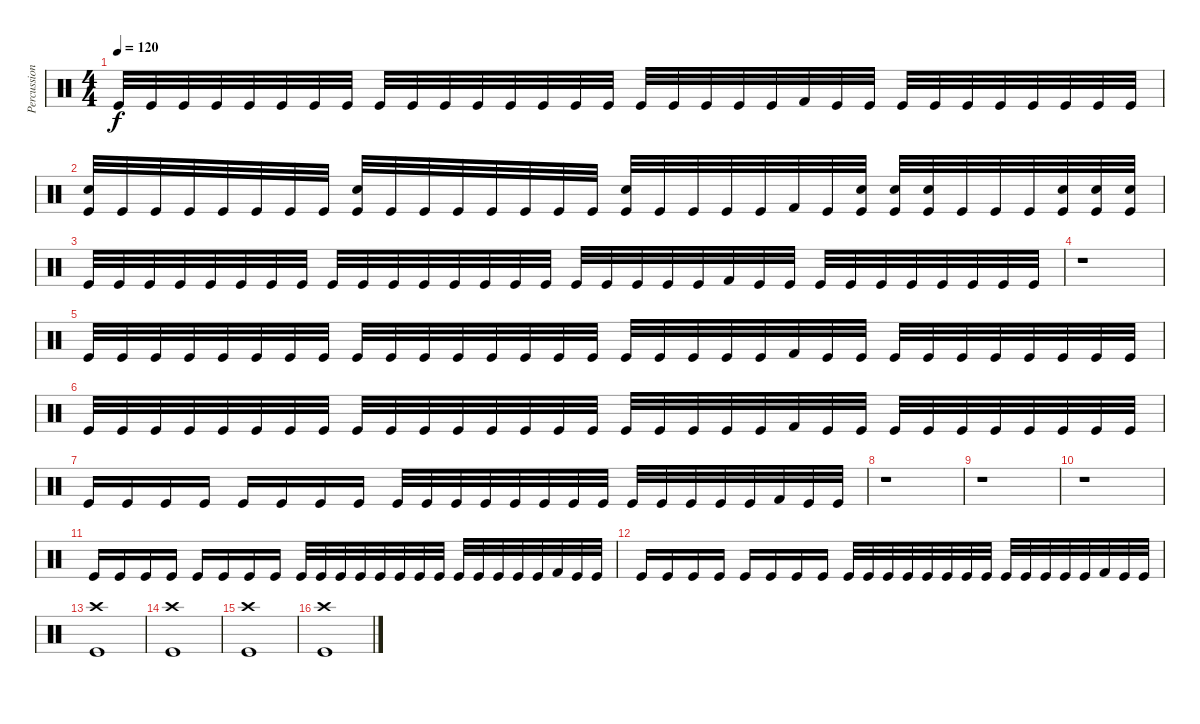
\track ("Percussion" "Percussion") {instrument percussion}
\staff {score}
\articulation defaults
\ts (4 4)
\tempo 120
\clef neutral
\ks c "Kick (hit)".32{dy f} "Kick (hit)".32 "Kick (hit)".32 "Kick (hit)".32 "Kick (hit)".32 "Kick (hit)".32 "Kick (hit)".32 "Kick (hit)".32 "Kick (hit)".32 "Kick (hit)".32 "Kick (hit)".32 "Kick (hit)".32 "Kick (hit)".32 "Kick (hit)".32 "Kick (hit)".32 "Kick (hit)".32 "Kick (hit)".32 "Kick (hit)".32 "Kick (hit)".32 "Kick (hit)".32 "Kick (hit)".32 "Kick (hit) 2".32 "Kick (hit)".32 "Kick (hit)".32 "Kick (hit)".32 "Kick (hit)".32 "Kick (hit)".32 "Kick (hit)".32 "Kick (hit)".32 "Kick (hit)".32 "Kick (hit)".32 "Kick (hit)".32
|
("Kick (hit)" "Snare (hit) 2").32 "Kick (hit)".32 "Kick (hit)".32 "Kick (hit)".32 "Kick (hit)".32 "Kick (hit)".32 "Kick (hit)".32 "Kick (hit)".32 ("Kick (hit)" "Snare (hit) 2").32 "Kick (hit)".32 "Kick (hit)".32 "Kick (hit)".32 "Kick (hit)".32 "Kick (hit)".32 "Kick (hit)".32 "Kick (hit)".32 ("Kick (hit)" "Snare (hit) 2").32 "Kick (hit)".32 "Kick (hit)".32 "Kick (hit)".32 "Kick (hit)".32 "Kick (hit) 2".32 "Kick (hit)".32 ("Kick (hit)" "Snare (hit) 2").32 ("Kick (hit)" "Snare (hit) 2").32 ("Kick (hit)" "Snare (hit) 2").32 "Kick (hit)".32 "Kick (hit)".32 "Kick (hit)".32 ("Kick (hit)" "Snare (hit) 2").32 ("Kick (hit)" "Snare (hit) 2").32 ("Kick (hit)" "Snare (hit) 2").32 |
"Kick (hit)".32 "Kick (hit)".32 "Kick (hit)".32 "Kick (hit)".32 "Kick (hit)".32 "Kick (hit)".32 "Kick (hit)".32 "Kick (hit)".32 "Kick (hit)".32 "Kick (hit)".32 "Kick (hit)".32 "Kick (hit)".32 "Kick (hit)".32 "Kick (hit)".32 "Kick (hit)".32 "Kick (hit)".32 "Kick (hit)".32 "Kick (hit)".32 "Kick (hit)".32 "Kick (hit)".32 "Kick (hit)".32 "Kick (hit) 2".32 "Kick (hit)".32 "Kick (hit)".32 "Kick (hit)".32 "Kick (hit)".32 "Kick (hit)".32 "Kick (hit)".32 "Kick (hit)".32 "Kick (hit)".32 "Kick (hit)".32 "Kick (hit)".32 |
r.1 |
"Kick (hit)".32 "Kick (hit)".32 "Kick (hit)".32 "Kick (hit)".32 "Kick (hit)".32 "Kick (hit)".32 "Kick (hit)".32 "Kick (hit)".32 "Kick (hit)".32 "Kick (hit)".32 "Kick (hit)".32 "Kick (hit)".32 "Kick (hit)".32 "Kick (hit)".32 "Kick (hit)".32 "Kick (hit)".32 "Kick (hit)".32 "Kick (hit)".32 "Kick (hit)".32 "Kick (hit)".32 "Kick (hit)".32 "Kick (hit) 2".32 "Kick (hit)".32 "Kick (hit)".32 "Kick (hit)".32 "Kick (hit)".32 "Kick (hit)".32 "Kick (hit)".32 "Kick (hit)".32 "Kick (hit)".32 "Kick (hit)".32 "Kick (hit)".32 |
"Kick (hit)".32 "Kick (hit)".32 "Kick (hit)".32 "Kick (hit)".32 "Kick (hit)".32 "Kick (hit)".32 "Kick (hit)".32 "Kick (hit)".32 "Kick (hit)".32 "Kick (hit)".32 "Kick (hit)".32 "Kick (hit)".32 "Kick (hit)".32 "Kick (hit)".32 "Kick (hit)".32 "Kick (hit)".32 "Kick (hit)".32 "Kick (hit)".32 "Kick (hit)".32 "Kick (hit)".32 "Kick (hit)".32 "Kick (hit) 2".32 "Kick (hit)".32 "Kick (hit)".32 "Kick (hit)".32 "Kick (hit)".32 "Kick (hit)".32 "Kick (hit)".32 "Kick (hit)".32 "Kick (hit)".32 "Kick (hit)".32 "Kick (hit)".32 |
"Kick (hit)".16 "Kick (hit)".16 "Kick (hit)".16 "Kick (hit)".16 "Kick (hit)".16 "Kick (hit)".16 "Kick (hit)".16 "Kick (hit)".16 "Kick (hit)".32 "Kick (hit)".32 "Kick (hit)".32 "Kick (hit)".32 "Kick (hit)".32 "Kick (hit)".32 "Kick (hit)".32 "Kick (hit)".32 "Kick (hit)".32 "Kick (hit)".32 "Kick (hit)".32 "Kick (hit)".32 "Kick (hit)".32 "Kick (hit) 2".32 "Kick (hit)".32 "Kick (hit)".32 |
r.1 |
r.1 |
r.1 |
"Kick (hit)".16 "Kick (hit)".16 "Kick (hit)".16 "Kick (hit)".16 "Kick (hit)".16 "Kick (hit)".16 "Kick (hit)".16 "Kick (hit)".16 "Kick (hit)".32 "Kick (hit)".32 "Kick (hit)".32 "Kick (hit)".32 "Kick (hit)".32 "Kick (hit)".32 "Kick (hit)".32 "Kick (hit)".32 "Kick (hit)".32 "Kick (hit)".32 "Kick (hit)".32 "Kick (hit)".32 "Kick (hit)".32 "Kick (hit) 2".32 "Kick (hit)".32 "Kick (hit)".32 |
"Kick (hit)".16 "Kick (hit)".16 "Kick (hit)".16 "Kick (hit)".16 "Kick (hit)".16 "Kick (hit)".16 "Kick (hit)".16 "Kick (hit)".16 "Kick (hit)".32 "Kick (hit)".32 "Kick (hit)".32 "Kick (hit)".32 "Kick (hit)".32 "Kick (hit)".32 "Kick (hit)".32 "Kick (hit)".32 "Kick (hit)".32 "Kick (hit)".32 "Kick (hit)".32 "Kick (hit)".32 "Kick (hit)".32 "Kick (hit) 2".32 "Kick (hit)".32 "Kick (hit)".32 |
("Crash high (hit)" "Kick (hit)").1 |
("Crash high (hit)" "Kick (hit)").1 |
("Crash high (hit)" "Kick (hit)").1 |
("Crash high (hit)" "Kick (hit)").1
